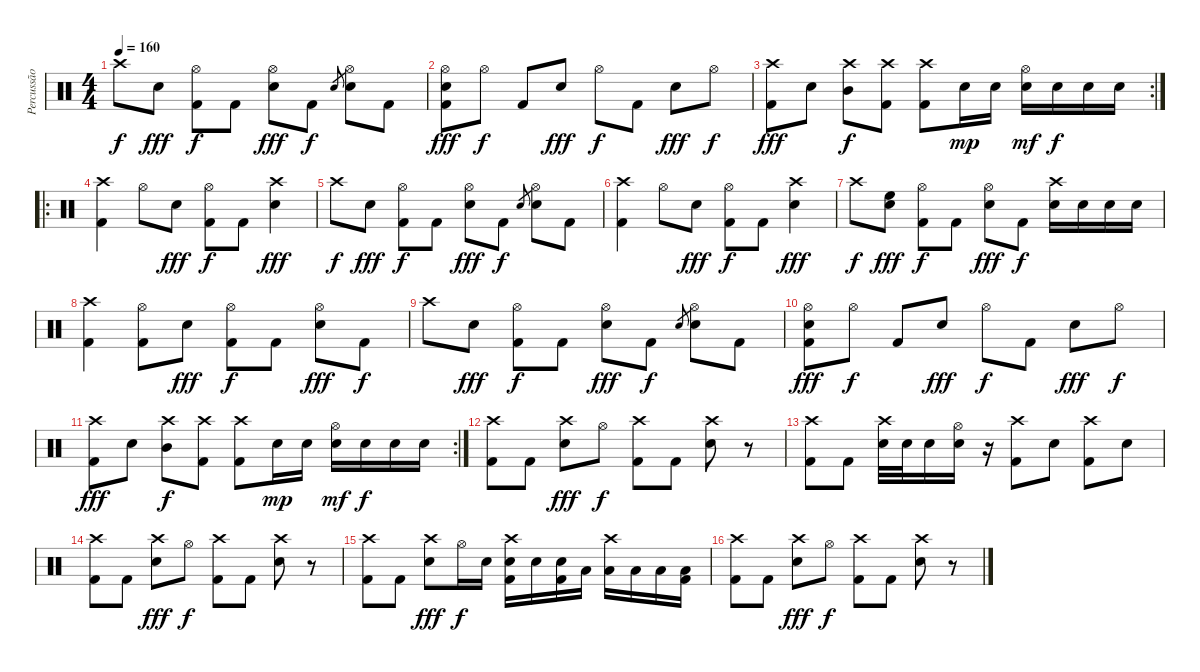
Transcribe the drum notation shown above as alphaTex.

\track ("Percussão" "Percussão") {instrument percussion}
\staff {score}
\articulation defaults
\ts (4 4)
\tempo 160
\clef neutral
\ks c "Crash high (hit)".8{dy f} "Electric Snare (hit)".8{dy fff}
("Hi-Hat (open)" "Kick (hit) 2").8{dy f} "Kick (hit) 2".8 ("Hi-Hat (open)" "Electric Snare (hit)").8{dy fff} "Kick (hit) 2".8{dy f} "Electric Snare (hit)".8{gr} ("Hi-Hat (open)" "Electric Snare (hit)").8 "Kick (hit) 2".8 |
("Hi-Hat (open)" "Electric Snare (hit)" "Kick (hit) 2").8{dy fff} "Hi-Hat (open)".8{dy f} "Kick (hit) 2".8 "Electric Snare (hit)".8{dy fff} "Hi-Hat (open)".8{dy f} "Kick (hit) 2".8 "Electric Snare (hit)".8{dy fff} "Hi-Hat (open)".8{dy f} |
\rc 2
("Crash high (hit)" "Kick (hit) 2").8{dy fff} "Electric Snare (hit)".8 ("Crash high (hit)" "Mid Tom (hit)").8{dy f} ("Crash high (hit)" "Kick (hit) 2").8 ("Crash high (hit)" "Kick (hit) 2").8 "Electric Snare (hit)".16{dy mp} "Electric Snare (hit)".16 ("Hi-Hat (open)" "Electric Snare (hit)").16{dy mf} "Electric Snare (hit)".16{dy f} "Electric Snare (hit)".16 "Electric Snare (hit)".16 |
\ro
("Crash high (hit)" "Kick (hit) 2").4 "Hi-Hat (open)".8 "Electric Snare (hit)".8{dy fff} ("Hi-Hat (open)" "Kick (hit) 2").8{dy f} "Kick (hit) 2".8 ("Crash high (hit)" "Electric Snare (hit)").4{dy fff} |
"Crash high (hit)".8{dy f} "Electric Snare (hit)".8{dy fff} ("Hi-Hat (open)" "Kick (hit) 2").8{dy f} "Kick (hit) 2".8 ("Hi-Hat (open)" "Electric Snare (hit)").8{dy fff} "Kick (hit) 2".8{dy f} "Electric Snare (hit)".8{gr} ("Hi-Hat (open)" "Electric Snare (hit)").8 "Kick (hit) 2".8 |
("Crash high (hit)" "Kick (hit) 2").4 "Hi-Hat (open)".8 "Electric Snare (hit)".8{dy fff} ("Hi-Hat (open)" "Kick (hit) 2").8{dy f} "Kick (hit) 2".8 ("Crash high (hit)" "Electric Snare (hit)").4{dy fff} |
"Crash high (hit)".8{dy f} ("High Floor Tom (hit)" "Electric Snare (hit)").8{dy fff} ("Hi-Hat (open)" "Kick (hit) 2").8{dy f} "Kick (hit) 2".8 ("Hi-Hat (open)" "Electric Snare (hit)").8{dy fff} "Kick (hit) 2".8{dy f} ("Crash high (hit)" "Electric Snare (hit)").16 "Electric Snare (hit)".16 "Electric Snare (hit)".16 "Electric Snare (hit)".16 |
("Crash high (hit)" "Kick (hit) 2").4 ("Hi-Hat (open)" "Kick (hit) 2").8 "Electric Snare (hit)".8{dy fff} ("Hi-Hat (open)" "Kick (hit) 2").8{dy f} "Kick (hit) 2".8 ("Hi-Hat (open)" "Electric Snare (hit)").8{dy fff} "Kick (hit) 2".8{dy f} |
"Crash high (hit)".8 "Electric Snare (hit)".8{dy fff} ("Hi-Hat (open)" "Kick (hit) 2").8{dy f} "Kick (hit) 2".8 ("Hi-Hat (open)" "Electric Snare (hit)").8{dy fff} "Kick (hit) 2".8{dy f} "Electric Snare (hit)".8{gr} ("Hi-Hat (open)" "Electric Snare (hit)").8 "Kick (hit) 2".8 |
("Hi-Hat (open)" "Electric Snare (hit)" "Kick (hit) 2").8{dy fff} "Hi-Hat (open)".8{dy f} "Kick (hit) 2".8 "Electric Snare (hit)".8{dy fff} "Hi-Hat (open)".8{dy f} "Kick (hit) 2".8 "Electric Snare (hit)".8{dy fff} "Hi-Hat (open)".8{dy f} |
\rc 2
("Crash high (hit)" "Kick (hit) 2").8{dy fff} "Electric Snare (hit)".8 ("Crash high (hit)" "Mid Tom (hit)").8{dy f} ("Crash high (hit)" "Kick (hit) 2").8 ("Crash high (hit)" "Kick (hit) 2").8 "Electric Snare (hit)".16{dy mp} "Electric Snare (hit)".16 ("Hi-Hat (open)" "Electric Snare (hit)").16{dy mf} "Electric Snare (hit)".16{dy f} "Electric Snare (hit)".16 "Electric Snare (hit)".16 |
("Crash high (hit)" "Kick (hit) 2").8 "Kick (hit) 2".8 ("Crash high (hit)" "Electric Snare (hit)").8{dy fff} "Hi-Hat (open)".8{dy f} ("Crash high (hit)" "Kick (hit) 2").8 "Kick (hit) 2".8 ("Crash high (hit)" "Electric Snare (hit)").8 r.8 |
("Crash high (hit)" "Kick (hit) 2").8 "Kick (hit) 2".8 ("Crash high (hit)" "Electric Snare (hit)").32 "Electric Snare (hit)".32 "Electric Snare (hit)".16 ("Hi-Hat (open)" "Electric Snare (hit)").16 r.16 ("Crash high (hit)" "Kick (hit) 2").8 "Electric Snare (hit)".8 ("Crash high (hit)" "Kick (hit) 2").8 "Electric Snare (hit)".8 |
("Crash high (hit)" "Kick (hit) 2").8 "Kick (hit) 2".8 ("Crash high (hit)" "Electric Snare (hit)").8{dy fff} "Hi-Hat (open)".8{dy f} ("Crash high (hit)" "Kick (hit) 2").8 "Kick (hit) 2".8 ("Crash high (hit)" "Electric Snare (hit)").8 r.8 |
("Crash high (hit)" "Kick (hit) 2").8 "Kick (hit) 2".8 ("Crash high (hit)" "Electric Snare (hit)").8{dy fff} "Hi-Hat (open)".16{dy f} "Electric Snare (hit)".16 ("Crash high (hit)" "Electric Snare (hit)" "Kick (hit) 2").16 "Electric Snare (hit)".16 ("Electric Snare (hit)" "Kick (hit) 2").16 "Low Tom (hit)".16 ("Crash high (hit)" "Low Tom (hit)").16 "Low Tom (hit)".16 "Low Tom (hit)".16 ("Low Tom (hit)" "Kick (hit) 2").16 |
("Crash high (hit)" "Kick (hit) 2").8 "Kick (hit) 2".8 ("Crash high (hit)" "Electric Snare (hit)").8{dy fff} "Hi-Hat (open)".8{dy f} ("Crash high (hit)" "Kick (hit) 2").8 "Kick (hit) 2".8 ("Crash high (hit)" "Electric Snare (hit)").8 r.8
